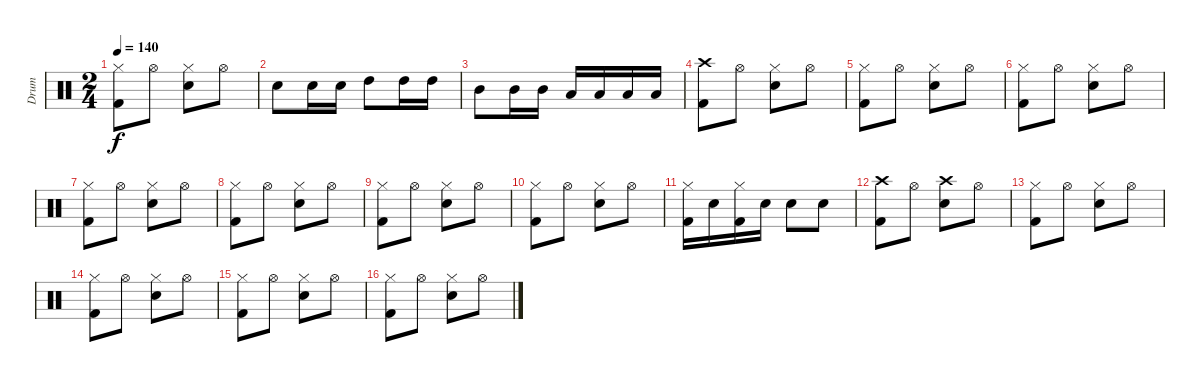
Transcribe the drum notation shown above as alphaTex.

\track ("Drum" "Drum") {instrument percussion}
\staff {score}
\articulation defaults
\ts (2 4)
\tempo 140
\clef neutral
\ks c
("Hi-Hat (closed)" "Kick (hit) 2").8{dy f} "Hi-Hat (open)".8 ("Hi-Hat (closed)" "Electric Snare (hit)").8 "Hi-Hat (open)".8 |
"Electric Snare (hit)".8 "Electric Snare (hit)".16 "Electric Snare (hit)".16 "High Tom (hit)".8 "High Tom (hit)".16 "High Tom (hit)".16 |
"Mid Tom (hit)".8 "Mid Tom (hit)".16 "Mid Tom (hit)".16 "Low Tom (hit)".16 "Low Tom (hit)".16 "Low Tom (hit)".16 "Low Tom (hit)".16 |
("Crash high (hit)" "Kick (hit) 2").8 "Hi-Hat (open)".8 ("Hi-Hat (closed)" "Electric Snare (hit)").8 "Hi-Hat (open)".8 |
("Kick (hit) 2" "Hi-Hat (closed)").8 "Hi-Hat (open)".8 ("Hi-Hat (closed)" "Electric Snare (hit)").8 "Hi-Hat (open)".8 |
("Hi-Hat (closed)" "Kick (hit) 2").8 "Hi-Hat (open)".8 ("Hi-Hat (closed)" "Electric Snare (hit)").8 "Hi-Hat (open)".8 |
("Hi-Hat (closed)" "Kick (hit) 2").8 "Hi-Hat (open)".8 ("Hi-Hat (closed)" "Electric Snare (hit)").8 "Hi-Hat (open)".8 |
("Kick (hit) 2" "Hi-Hat (closed)").8 "Hi-Hat (open)".8 ("Hi-Hat (closed)" "Electric Snare (hit)").8 "Hi-Hat (open)".8 |
("Hi-Hat (closed)" "Kick (hit) 2").8 "Hi-Hat (open)".8 ("Hi-Hat (closed)" "Electric Snare (hit)").8 "Hi-Hat (open)".8 |
("Hi-Hat (closed)" "Kick (hit) 2").8 "Hi-Hat (open)".8 ("Hi-Hat (closed)" "Electric Snare (hit)").8 "Hi-Hat (open)".8 |
("Hi-Hat (closed)" "Kick (hit) 2").16 "Electric Snare (hit)".16 ("Hi-Hat (closed)" "Kick (hit) 2").16 "Electric Snare (hit)".16 "Electric Snare (hit)".8 "Electric Snare (hit)".8 |
("Crash high (hit)" "Kick (hit) 2").8 "Hi-Hat (open)".8 ("Crash high (hit)" "Electric Snare (hit)").8 "Hi-Hat (open)".8 |
("Kick (hit) 2" "Hi-Hat (closed)").8 "Hi-Hat (open)".8 ("Hi-Hat (closed)" "Electric Snare (hit)").8 "Hi-Hat (open)".8 |
("Kick (hit) 2" "Hi-Hat (closed)").8 "Hi-Hat (open)".8 ("Hi-Hat (closed)" "Electric Snare (hit)").8 "Hi-Hat (open)".8 |
("Kick (hit) 2" "Hi-Hat (closed)").8 "Hi-Hat (open)".8 ("Hi-Hat (closed)" "Electric Snare (hit)").8 "Hi-Hat (open)".8 |
("Kick (hit) 2" "Hi-Hat (closed)").8 "Hi-Hat (open)".8 ("Hi-Hat (closed)" "Electric Snare (hit)").8 "Hi-Hat (open)".8
